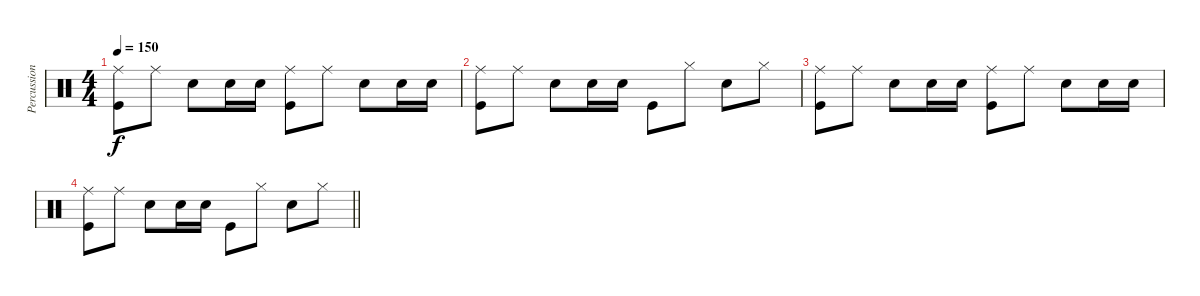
\track ("Percussion" "Percussion") {instrument percussion}
\staff {score}
\articulation defaults
\ts (4 4)
\tempo 150
\clef neutral
\ks c
("Ride (middle)" "Kick (hit)").8{dy f} "Ride (middle)".8 "Snare (hit) 2".8 "Snare (hit) 2".16 "Snare (hit) 2".16 ("Ride (middle)" "Kick (hit)").8 "Ride (middle)".8 "Snare (hit) 2".8 "Snare (hit) 2".16 "Snare (hit) 2".16 |
("Ride (middle)" "Kick (hit)").8 "Ride (middle)".8 "Snare (hit) 2".8 "Snare (hit) 2".16 "Snare (hit) 2".16 "Kick (hit)".8 "Hi-Hat (closed)".8 "Snare (hit) 2".8 "Hi-Hat (closed)".8 |
("Ride (middle)" "Kick (hit)").8 "Ride (middle)".8 "Snare (hit) 2".8 "Snare (hit) 2".16 "Snare (hit) 2".16 ("Ride (middle)" "Kick (hit)").8 "Ride (middle)".8 "Snare (hit) 2".8 "Snare (hit) 2".16 "Snare (hit) 2".16 |
\barLineRight lightlight
("Ride (middle)" "Kick (hit)").8 "Ride (middle)".8 "Snare (hit) 2".8 "Snare (hit) 2".16 "Snare (hit) 2".16 "Kick (hit)".8 "Hi-Hat (closed)".8 "Snare (hit) 2".8 "Hi-Hat (closed)".8
